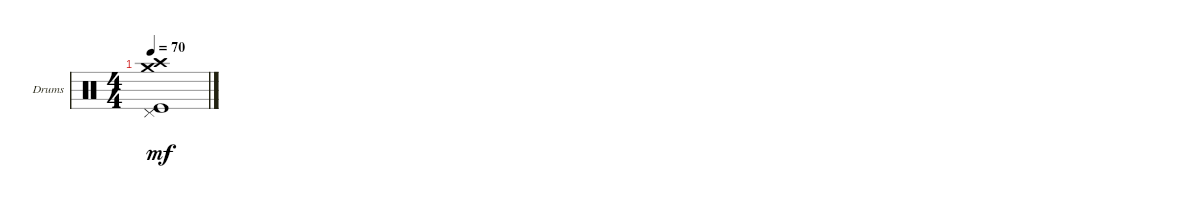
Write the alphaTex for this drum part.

\defaultSystemsLayout 4
\bracketExtendMode groupsimilarinstruments
\firstSystemTrackNameOrientation horizontal
\otherSystemsTrackNameOrientation horizontal
\track ("Drumkit" "Drums") {instrument percussion}
\staff {score}
\articulation defaults
\ts (4 4)
\tempo 70
\clef neutral
\ks c
("Pedal Hi-Hat (hit)" "Kick (hit)" "Crash medium (hit)" "Crash high (hit)").1{dy mf}
